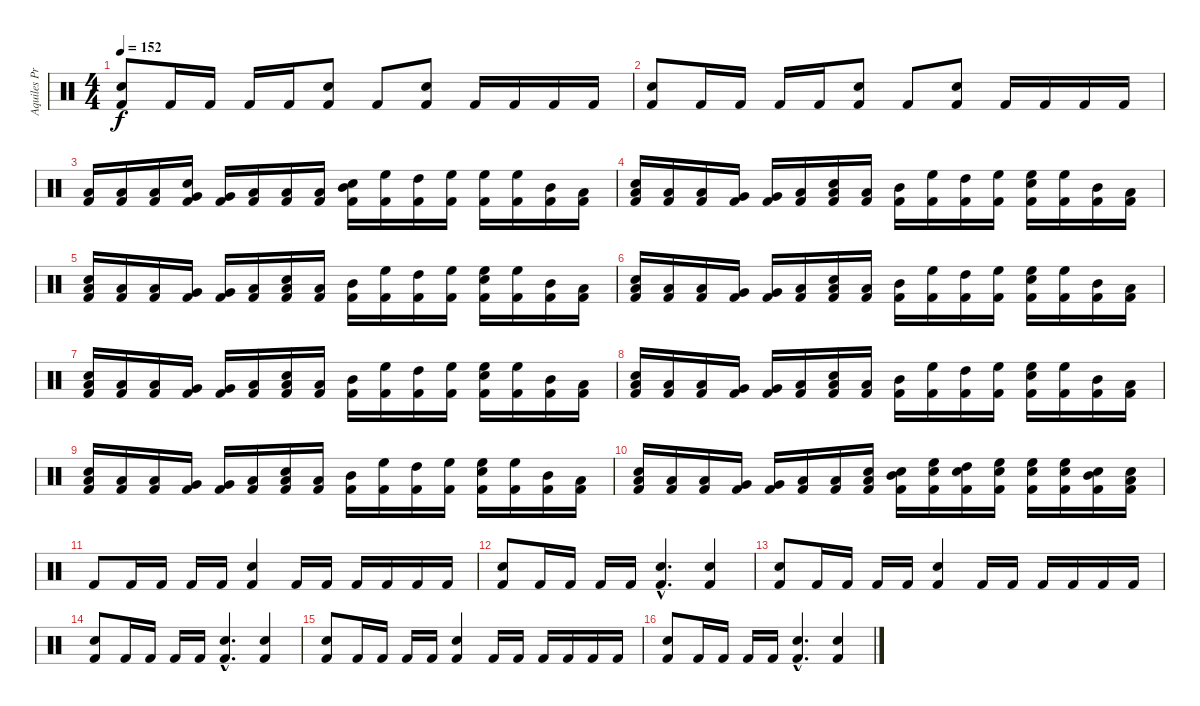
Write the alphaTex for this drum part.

\track ("Aquiles Priester" "Aquiles Pr") {instrument percussion}
\staff {score}
\articulation defaults
\ts (4 4)
\tempo 152
\clef neutral
\ks c
("Electric Snare (hit)" "Kick (hit) 2").8{dy f} "Kick (hit) 2".16 "Kick (hit) 2".16 "Kick (hit) 2".16 "Kick (hit) 2".16 ("Electric Snare (hit)" "Kick (hit) 2").8 "Kick (hit) 2".8 ("Electric Snare (hit)" "Kick (hit) 2").8 "Kick (hit) 2".16 "Kick (hit) 2".16 "Kick (hit) 2".16 "Kick (hit) 2".16 |
("Electric Snare (hit)" "Kick (hit) 2").8 "Kick (hit) 2".16 "Kick (hit) 2".16 "Kick (hit) 2".16 "Kick (hit) 2".16 ("Electric Snare (hit)" "Kick (hit) 2").8 "Kick (hit) 2".8 ("Electric Snare (hit)" "Kick (hit) 2").8 "Kick (hit) 2".16 "Kick (hit) 2".16 "Kick (hit) 2".16 "Kick (hit) 2".16 |
("Low Floor Tom (hit)" "Kick (hit) 2").16 ("Low Floor Tom (hit)" "Kick (hit) 2").16 ("Low Floor Tom (hit)" "Kick (hit) 2").16 ("Electric Snare (hit)" "Very Low Tom (hit)" "Kick (hit) 2").16 ("Very Low Tom (hit)" "Kick (hit) 2").16 ("Low Tom (hit)" "Kick (hit) 2").16 ("Low Tom (hit)" "Kick (hit) 2").16 ("Low Tom (hit)" "Kick (hit) 2").16 ("Electric Snare (hit)" "Mid Tom (hit)" "Kick (hit) 2").16 ("High Floor Tom (hit)" "Kick (hit) 2").16 ("High Tom (hit)" "Kick (hit) 2").16 ("High Floor Tom (hit)" "Kick (hit) 2").16 ("High Floor Tom (hit)" "Kick (hit) 2").16 ("High Floor Tom (hit)" "Kick (hit) 2").16 ("Mid Tom (hit)" "Kick (hit) 2").16 ("Low Floor Tom (hit)" "Kick (hit) 2").16 |
("Electric Snare (hit)" "Low Floor Tom (hit)" "Kick (hit) 2").16 ("Low Floor Tom (hit)" "Kick (hit) 2").16 ("Low Floor Tom (hit)" "Kick (hit) 2").16 ("Very Low Tom (hit)" "Kick (hit) 2").16 ("Very Low Tom (hit)" "Kick (hit) 2").16 ("Low Tom (hit)" "Kick (hit) 2").16 ("Electric Snare (hit)" "Low Tom (hit)" "Kick (hit) 2").16 ("Low Tom (hit)" "Kick (hit) 2").16 ("Mid Tom (hit)" "Kick (hit) 2").16 ("High Floor Tom (hit)" "Kick (hit) 2").16 ("High Tom (hit)" "Kick (hit) 2").16 ("High Floor Tom (hit)" "Kick (hit) 2").16 ("Electric Snare (hit)" "High Floor Tom (hit)" "Kick (hit) 2").16 ("High Floor Tom (hit)" "Kick (hit) 2").16 ("Mid Tom (hit)" "Kick (hit) 2").16 ("Low Floor Tom (hit)" "Kick (hit) 2").16 |
("Electric Snare (hit)" "Low Floor Tom (hit)" "Kick (hit) 2").16 ("Low Floor Tom (hit)" "Kick (hit) 2").16 ("Low Floor Tom (hit)" "Kick (hit) 2").16 ("Very Low Tom (hit)" "Kick (hit) 2").16 ("Very Low Tom (hit)" "Kick (hit) 2").16 ("Low Tom (hit)" "Kick (hit) 2").16 ("Electric Snare (hit)" "Low Tom (hit)" "Kick (hit) 2").16 ("Low Tom (hit)" "Kick (hit) 2").16 ("Mid Tom (hit)" "Kick (hit) 2").16 ("High Floor Tom (hit)" "Kick (hit) 2").16 ("High Tom (hit)" "Kick (hit) 2").16 ("High Floor Tom (hit)" "Kick (hit) 2").16 ("Electric Snare (hit)" "High Floor Tom (hit)" "Kick (hit) 2").16 ("High Floor Tom (hit)" "Kick (hit) 2").16 ("Mid Tom (hit)" "Kick (hit) 2").16 ("Low Floor Tom (hit)" "Kick (hit) 2").16 |
("Electric Snare (hit)" "Low Floor Tom (hit)" "Kick (hit) 2").16 ("Low Floor Tom (hit)" "Kick (hit) 2").16 ("Low Floor Tom (hit)" "Kick (hit) 2").16 ("Very Low Tom (hit)" "Kick (hit) 2").16 ("Very Low Tom (hit)" "Kick (hit) 2").16 ("Low Tom (hit)" "Kick (hit) 2").16 ("Electric Snare (hit)" "Low Tom (hit)" "Kick (hit) 2").16 ("Low Tom (hit)" "Kick (hit) 2").16 ("Mid Tom (hit)" "Kick (hit) 2").16 ("High Floor Tom (hit)" "Kick (hit) 2").16 ("High Tom (hit)" "Kick (hit) 2").16 ("High Floor Tom (hit)" "Kick (hit) 2").16 ("Electric Snare (hit)" "High Floor Tom (hit)" "Kick (hit) 2").16 ("High Floor Tom (hit)" "Kick (hit) 2").16 ("Mid Tom (hit)" "Kick (hit) 2").16 ("Low Floor Tom (hit)" "Kick (hit) 2").16 |
("Electric Snare (hit)" "Low Floor Tom (hit)" "Kick (hit) 2").16 ("Low Floor Tom (hit)" "Kick (hit) 2").16 ("Low Floor Tom (hit)" "Kick (hit) 2").16 ("Very Low Tom (hit)" "Kick (hit) 2").16 ("Very Low Tom (hit)" "Kick (hit) 2").16 ("Low Tom (hit)" "Kick (hit) 2").16 ("Electric Snare (hit)" "Low Tom (hit)" "Kick (hit) 2").16 ("Low Tom (hit)" "Kick (hit) 2").16 ("Mid Tom (hit)" "Kick (hit) 2").16 ("High Floor Tom (hit)" "Kick (hit) 2").16 ("High Tom (hit)" "Kick (hit) 2").16 ("High Floor Tom (hit)" "Kick (hit) 2").16 ("Electric Snare (hit)" "High Floor Tom (hit)" "Kick (hit) 2").16 ("High Floor Tom (hit)" "Kick (hit) 2").16 ("Mid Tom (hit)" "Kick (hit) 2").16 ("Low Floor Tom (hit)" "Kick (hit) 2").16 |
("Electric Snare (hit)" "Low Floor Tom (hit)" "Kick (hit) 2").16 ("Low Floor Tom (hit)" "Kick (hit) 2").16 ("Low Floor Tom (hit)" "Kick (hit) 2").16 ("Very Low Tom (hit)" "Kick (hit) 2").16 ("Very Low Tom (hit)" "Kick (hit) 2").16 ("Low Tom (hit)" "Kick (hit) 2").16 ("Electric Snare (hit)" "Low Tom (hit)" "Kick (hit) 2").16 ("Low Tom (hit)" "Kick (hit) 2").16 ("Mid Tom (hit)" "Kick (hit) 2").16 ("High Floor Tom (hit)" "Kick (hit) 2").16 ("High Tom (hit)" "Kick (hit) 2").16 ("High Floor Tom (hit)" "Kick (hit) 2").16 ("Electric Snare (hit)" "High Floor Tom (hit)" "Kick (hit) 2").16 ("High Floor Tom (hit)" "Kick (hit) 2").16 ("Mid Tom (hit)" "Kick (hit) 2").16 ("Low Floor Tom (hit)" "Kick (hit) 2").16 |
("Electric Snare (hit)" "Low Floor Tom (hit)" "Kick (hit) 2").16 ("Low Floor Tom (hit)" "Kick (hit) 2").16 ("Low Floor Tom (hit)" "Kick (hit) 2").16 ("Very Low Tom (hit)" "Kick (hit) 2").16 ("Very Low Tom (hit)" "Kick (hit) 2").16 ("Low Tom (hit)" "Kick (hit) 2").16 ("Electric Snare (hit)" "Low Tom (hit)" "Kick (hit) 2").16 ("Low Tom (hit)" "Kick (hit) 2").16 ("Mid Tom (hit)" "Kick (hit) 2").16 ("High Floor Tom (hit)" "Kick (hit) 2").16 ("High Tom (hit)" "Kick (hit) 2").16 ("High Floor Tom (hit)" "Kick (hit) 2").16 ("Electric Snare (hit)" "High Floor Tom (hit)" "Kick (hit) 2").16 ("High Floor Tom (hit)" "Kick (hit) 2").16 ("Mid Tom (hit)" "Kick (hit) 2").16 ("Low Floor Tom (hit)" "Kick (hit) 2").16 |
("Electric Snare (hit)" "Low Floor Tom (hit)" "Kick (hit) 2").16 ("Low Floor Tom (hit)" "Kick (hit) 2").16 ("Low Floor Tom (hit)" "Kick (hit) 2").16 ("Very Low Tom (hit)" "Kick (hit) 2").16 ("Very Low Tom (hit)" "Kick (hit) 2").16 ("Low Tom (hit)" "Kick (hit) 2").16 ("Low Tom (hit)" "Kick (hit) 2").16 ("Electric Snare (hit)" "Low Tom (hit)" "Kick (hit) 2").16 ("Electric Snare (hit)" "Mid Tom (hit)" "Kick (hit) 2").16 ("Electric Snare (hit)" "High Floor Tom (hit)" "Kick (hit) 2").16 ("Electric Snare (hit)" "High Tom (hit)" "Kick (hit) 2").16 ("Electric Snare (hit)" "High Floor Tom (hit)" "Kick (hit) 2").16 ("Electric Snare (hit)" "High Floor Tom (hit)" "Kick (hit) 2").16 ("Electric Snare (hit)" "High Floor Tom (hit)" "Kick (hit) 2").16 ("Electric Snare (hit)" "Mid Tom (hit)" "Kick (hit) 2").16 ("Electric Snare (hit)" "Low Floor Tom (hit)" "Kick (hit) 2").16 |
"Kick (hit) 2".8 "Kick (hit) 2".16 "Kick (hit) 2".16 "Kick (hit) 2".16 "Kick (hit) 2".16 ("Electric Snare (hit)" "Kick (hit) 2").4 "Kick (hit) 2".16 "Kick (hit) 2".16 "Kick (hit) 2".16 "Kick (hit) 2".16 "Kick (hit) 2".16 "Kick (hit) 2".16 |
("Electric Snare (hit)" "Kick (hit) 2").8 "Kick (hit) 2".16 "Kick (hit) 2".16 "Kick (hit) 2".16 "Kick (hit) 2".16 ("Electric Snare (hit)"{hac} "Kick (hit) 2"{hac}).4{d} ("Electric Snare (hit)" "Kick (hit) 2").4 |
("Electric Snare (hit)" "Kick (hit) 2").8 "Kick (hit) 2".16 "Kick (hit) 2".16 "Kick (hit) 2".16 "Kick (hit) 2".16 ("Electric Snare (hit)" "Kick (hit) 2").4 "Kick (hit) 2".16 "Kick (hit) 2".16 "Kick (hit) 2".16 "Kick (hit) 2".16 "Kick (hit) 2".16 "Kick (hit) 2".16 |
("Electric Snare (hit)" "Kick (hit) 2").8 "Kick (hit) 2".16 "Kick (hit) 2".16 "Kick (hit) 2".16 "Kick (hit) 2".16 ("Electric Snare (hit)"{hac} "Kick (hit) 2"{hac}).4{d} ("Electric Snare (hit)" "Kick (hit) 2").4 |
("Electric Snare (hit)" "Kick (hit) 2").8 "Kick (hit) 2".16 "Kick (hit) 2".16 "Kick (hit) 2".16 "Kick (hit) 2".16 ("Electric Snare (hit)" "Kick (hit) 2").4 "Kick (hit) 2".16 "Kick (hit) 2".16 "Kick (hit) 2".16 "Kick (hit) 2".16 "Kick (hit) 2".16 "Kick (hit) 2".16 |
("Electric Snare (hit)" "Kick (hit) 2").8 "Kick (hit) 2".16 "Kick (hit) 2".16 "Kick (hit) 2".16 "Kick (hit) 2".16 ("Electric Snare (hit)"{hac} "Kick (hit) 2"{hac}).4{d} ("Electric Snare (hit)" "Kick (hit) 2").4
